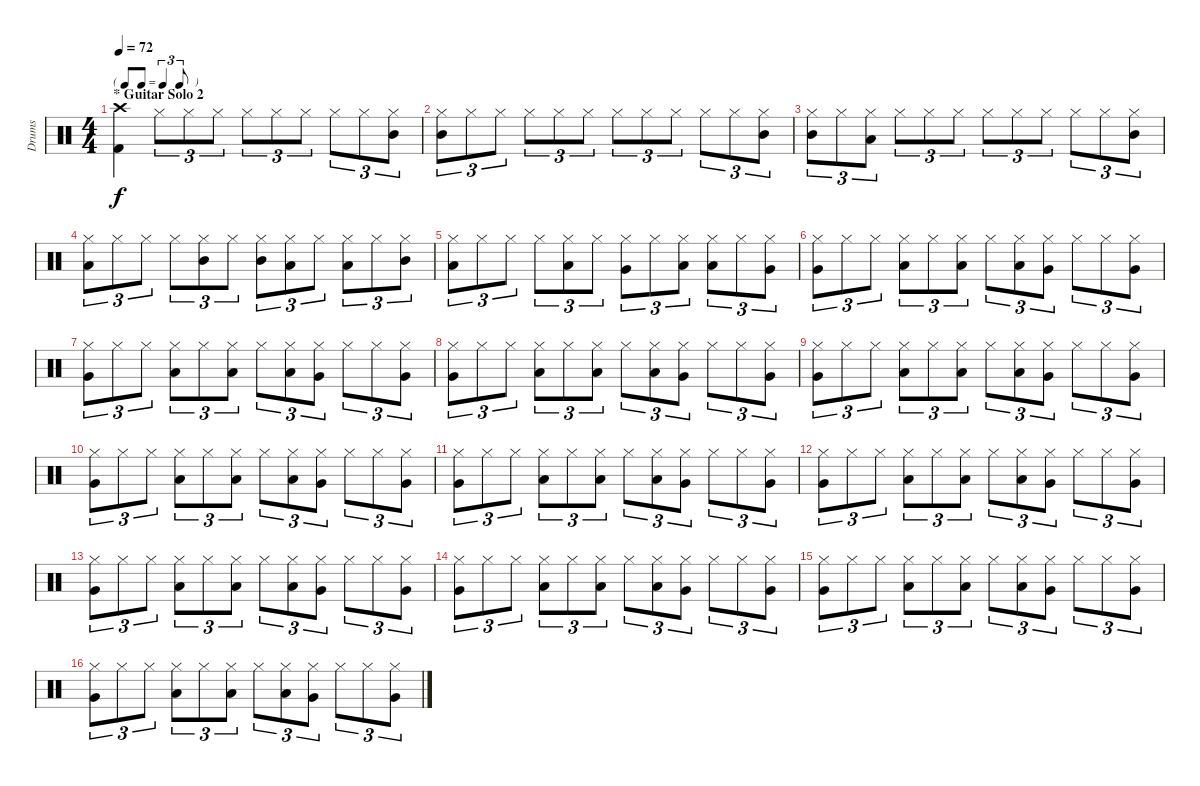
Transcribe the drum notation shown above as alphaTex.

\track ("Drums" "Drums") {instrument percussion}
\staff {score}
\articulation defaults
\ts (4 4)
\tf triplet8th
\section ("" "* Guitar Solo 2")
\tempo 72
\clef neutral
\ks c
("Crash high (hit)" "Kick (hit) 2").4{dy f} "Hi-Hat (closed)".8{tu (3 2)} "Hi-Hat (closed)".8{tu (3 2)} "Hi-Hat (closed)".8{tu (3 2)} "Hi-Hat (closed)".8{tu (3 2)} "Hi-Hat (closed)".8{tu (3 2)} "Hi-Hat (closed)".8{tu (3 2)} "Hi-Hat (closed)".8{tu (3 2)} "Hi-Hat (closed)".8{tu (3 2)} ("Hi-Hat (closed)" "Mid Tom (hit)").8{tu (3 2)} |
("Hi-Hat (closed)" "Mid Tom (hit)").8{tu (3 2)} "Hi-Hat (closed)".8{tu (3 2)} "Hi-Hat (closed)".8{tu (3 2)} "Hi-Hat (closed)".8{tu (3 2)} "Hi-Hat (closed)".8{tu (3 2)} "Hi-Hat (closed)".8{tu (3 2)} "Hi-Hat (closed)".8{tu (3 2)} "Hi-Hat (closed)".8{tu (3 2)} "Hi-Hat (closed)".8{tu (3 2)} "Hi-Hat (closed)".8{tu (3 2)} "Hi-Hat (closed)".8{tu (3 2)} ("Hi-Hat (closed)" "Mid Tom (hit)").8{tu (3 2)} |
("Hi-Hat (closed)" "Mid Tom (hit)").8{tu (3 2)} "Hi-Hat (closed)".8{tu (3 2)} ("Hi-Hat (closed)" "Low Tom (hit)").8{tu (3 2)} "Hi-Hat (closed)".8{tu (3 2)} "Hi-Hat (closed)".8{tu (3 2)} "Hi-Hat (closed)".8{tu (3 2)} "Hi-Hat (closed)".8{tu (3 2)} "Hi-Hat (closed)".8{tu (3 2)} "Hi-Hat (closed)".8{tu (3 2)} "Hi-Hat (closed)".8{tu (3 2)} "Hi-Hat (closed)".8{tu (3 2)} ("Hi-Hat (closed)" "Mid Tom (hit)").8{tu (3 2)} |
("Hi-Hat (closed)" "Low Tom (hit)").8{tu (3 2)} "Hi-Hat (closed)".8{tu (3 2)} "Hi-Hat (closed)".8{tu (3 2)} "Hi-Hat (closed)".8{tu (3 2)} ("Hi-Hat (closed)" "Mid Tom (hit)").8{tu (3 2)} "Hi-Hat (closed)".8{tu (3 2)} ("Hi-Hat (closed)" "Mid Tom (hit)").8{tu (3 2)} ("Hi-Hat (closed)" "Low Tom (hit)").8{tu (3 2)} "Hi-Hat (closed)".8{tu (3 2)} ("Hi-Hat (closed)" "Low Tom (hit)").8{tu (3 2)} "Hi-Hat (closed)".8{tu (3 2)} ("Hi-Hat (closed)" "Mid Tom (hit)").8{tu (3 2)} |
("Hi-Hat (closed)" "Low Tom (hit)").8{tu (3 2)} "Hi-Hat (closed)".8{tu (3 2)} "Hi-Hat (closed)".8{tu (3 2)} "Hi-Hat (closed)".8{tu (3 2)} ("Hi-Hat (closed)" "Low Tom (hit)").8{tu (3 2)} "Hi-Hat (closed)".8{tu (3 2)} ("Hi-Hat (closed)" "Very Low Tom (hit)").8{tu (3 2)} "Hi-Hat (closed)".8{tu (3 2)} ("Hi-Hat (closed)" "Low Tom (hit)").8{tu (3 2)} ("Hi-Hat (closed)" "Low Tom (hit)").8{tu (3 2)} "Hi-Hat (closed)".8{tu (3 2)} ("Hi-Hat (closed)" "Very Low Tom (hit)").8{tu (3 2)} |
("Hi-Hat (closed)" "Very Low Tom (hit)").8{tu (3 2)} "Hi-Hat (closed)".8{tu (3 2)} "Hi-Hat (closed)".8{tu (3 2)} ("Hi-Hat (closed)" "Low Tom (hit)").8{tu (3 2)} "Hi-Hat (closed)".8{tu (3 2)} ("Hi-Hat (closed)" "Low Tom (hit)").8{tu (3 2)} "Hi-Hat (closed)".8{tu (3 2)} ("Hi-Hat (closed)" "Low Tom (hit)").8{tu (3 2)} ("Hi-Hat (closed)" "Very Low Tom (hit)").8{tu (3 2)} "Hi-Hat (closed)".8{tu (3 2)} "Hi-Hat (closed)".8{tu (3 2)} ("Hi-Hat (closed)" "Very Low Tom (hit)").8{tu (3 2)} |
("Hi-Hat (closed)" "Very Low Tom (hit)").8{tu (3 2)} "Hi-Hat (closed)".8{tu (3 2)} "Hi-Hat (closed)".8{tu (3 2)} ("Hi-Hat (closed)" "Low Tom (hit)").8{tu (3 2)} "Hi-Hat (closed)".8{tu (3 2)} ("Hi-Hat (closed)" "Low Tom (hit)").8{tu (3 2)} "Hi-Hat (closed)".8{tu (3 2)} ("Hi-Hat (closed)" "Low Tom (hit)").8{tu (3 2)} ("Hi-Hat (closed)" "Very Low Tom (hit)").8{tu (3 2)} "Hi-Hat (closed)".8{tu (3 2)} "Hi-Hat (closed)".8{tu (3 2)} ("Hi-Hat (closed)" "Very Low Tom (hit)").8{tu (3 2)} |
("Hi-Hat (closed)" "Very Low Tom (hit)").8{tu (3 2)} "Hi-Hat (closed)".8{tu (3 2)} "Hi-Hat (closed)".8{tu (3 2)} ("Hi-Hat (closed)" "Low Tom (hit)").8{tu (3 2)} "Hi-Hat (closed)".8{tu (3 2)} ("Hi-Hat (closed)" "Low Tom (hit)").8{tu (3 2)} "Hi-Hat (closed)".8{tu (3 2)} ("Hi-Hat (closed)" "Low Tom (hit)").8{tu (3 2)} ("Hi-Hat (closed)" "Very Low Tom (hit)").8{tu (3 2)} "Hi-Hat (closed)".8{tu (3 2)} "Hi-Hat (closed)".8{tu (3 2)} ("Hi-Hat (closed)" "Very Low Tom (hit)").8{tu (3 2)} |
("Hi-Hat (closed)" "Very Low Tom (hit)").8{tu (3 2)} "Hi-Hat (closed)".8{tu (3 2)} "Hi-Hat (closed)".8{tu (3 2)} ("Hi-Hat (closed)" "Low Tom (hit)").8{tu (3 2)} "Hi-Hat (closed)".8{tu (3 2)} ("Hi-Hat (closed)" "Low Tom (hit)").8{tu (3 2)} "Hi-Hat (closed)".8{tu (3 2)} ("Hi-Hat (closed)" "Low Tom (hit)").8{tu (3 2)} ("Hi-Hat (closed)" "Very Low Tom (hit)").8{tu (3 2)} "Hi-Hat (closed)".8{tu (3 2)} "Hi-Hat (closed)".8{tu (3 2)} ("Hi-Hat (closed)" "Very Low Tom (hit)").8{tu (3 2)} |
("Hi-Hat (closed)" "Very Low Tom (hit)").8{tu (3 2)} "Hi-Hat (closed)".8{tu (3 2)} "Hi-Hat (closed)".8{tu (3 2)} ("Hi-Hat (closed)" "Low Tom (hit)").8{tu (3 2)} "Hi-Hat (closed)".8{tu (3 2)} ("Hi-Hat (closed)" "Low Tom (hit)").8{tu (3 2)} "Hi-Hat (closed)".8{tu (3 2)} ("Hi-Hat (closed)" "Low Tom (hit)").8{tu (3 2)} ("Hi-Hat (closed)" "Very Low Tom (hit)").8{tu (3 2)} "Hi-Hat (closed)".8{tu (3 2)} "Hi-Hat (closed)".8{tu (3 2)} ("Hi-Hat (closed)" "Very Low Tom (hit)").8{tu (3 2)} |
("Hi-Hat (closed)" "Very Low Tom (hit)").8{tu (3 2)} "Hi-Hat (closed)".8{tu (3 2)} "Hi-Hat (closed)".8{tu (3 2)} ("Hi-Hat (closed)" "Low Tom (hit)").8{tu (3 2)} "Hi-Hat (closed)".8{tu (3 2)} ("Hi-Hat (closed)" "Low Tom (hit)").8{tu (3 2)} "Hi-Hat (closed)".8{tu (3 2)} ("Hi-Hat (closed)" "Low Tom (hit)").8{tu (3 2)} ("Hi-Hat (closed)" "Very Low Tom (hit)").8{tu (3 2)} "Hi-Hat (closed)".8{tu (3 2)} "Hi-Hat (closed)".8{tu (3 2)} ("Hi-Hat (closed)" "Very Low Tom (hit)").8{tu (3 2)} |
("Hi-Hat (closed)" "Very Low Tom (hit)").8{tu (3 2)} "Hi-Hat (closed)".8{tu (3 2)} "Hi-Hat (closed)".8{tu (3 2)} ("Hi-Hat (closed)" "Low Tom (hit)").8{tu (3 2)} "Hi-Hat (closed)".8{tu (3 2)} ("Hi-Hat (closed)" "Low Tom (hit)").8{tu (3 2)} "Hi-Hat (closed)".8{tu (3 2)} ("Hi-Hat (closed)" "Low Tom (hit)").8{tu (3 2)} ("Hi-Hat (closed)" "Very Low Tom (hit)").8{tu (3 2)} "Hi-Hat (closed)".8{tu (3 2)} "Hi-Hat (closed)".8{tu (3 2)} ("Hi-Hat (closed)" "Very Low Tom (hit)").8{tu (3 2)} |
("Hi-Hat (closed)" "Very Low Tom (hit)").8{tu (3 2)} "Hi-Hat (closed)".8{tu (3 2)} "Hi-Hat (closed)".8{tu (3 2)} ("Hi-Hat (closed)" "Low Tom (hit)").8{tu (3 2)} "Hi-Hat (closed)".8{tu (3 2)} ("Hi-Hat (closed)" "Low Tom (hit)").8{tu (3 2)} "Hi-Hat (closed)".8{tu (3 2)} ("Hi-Hat (closed)" "Low Tom (hit)").8{tu (3 2)} ("Hi-Hat (closed)" "Very Low Tom (hit)").8{tu (3 2)} "Hi-Hat (closed)".8{tu (3 2)} "Hi-Hat (closed)".8{tu (3 2)} ("Hi-Hat (closed)" "Very Low Tom (hit)").8{tu (3 2)} |
("Hi-Hat (closed)" "Very Low Tom (hit)").8{tu (3 2)} "Hi-Hat (closed)".8{tu (3 2)} "Hi-Hat (closed)".8{tu (3 2)} ("Hi-Hat (closed)" "Low Tom (hit)").8{tu (3 2)} "Hi-Hat (closed)".8{tu (3 2)} ("Hi-Hat (closed)" "Low Tom (hit)").8{tu (3 2)} "Hi-Hat (closed)".8{tu (3 2)} ("Hi-Hat (closed)" "Low Tom (hit)").8{tu (3 2)} ("Hi-Hat (closed)" "Very Low Tom (hit)").8{tu (3 2)} "Hi-Hat (closed)".8{tu (3 2)} "Hi-Hat (closed)".8{tu (3 2)} ("Hi-Hat (closed)" "Very Low Tom (hit)").8{tu (3 2)} |
("Hi-Hat (closed)" "Very Low Tom (hit)").8{tu (3 2)} "Hi-Hat (closed)".8{tu (3 2)} "Hi-Hat (closed)".8{tu (3 2)} ("Hi-Hat (closed)" "Low Tom (hit)").8{tu (3 2)} "Hi-Hat (closed)".8{tu (3 2)} ("Hi-Hat (closed)" "Low Tom (hit)").8{tu (3 2)} "Hi-Hat (closed)".8{tu (3 2)} ("Hi-Hat (closed)" "Low Tom (hit)").8{tu (3 2)} ("Hi-Hat (closed)" "Very Low Tom (hit)").8{tu (3 2)} "Hi-Hat (closed)".8{tu (3 2)} "Hi-Hat (closed)".8{tu (3 2)} ("Hi-Hat (closed)" "Very Low Tom (hit)").8{tu (3 2)} |
("Hi-Hat (closed)" "Very Low Tom (hit)").8{tu (3 2)} "Hi-Hat (closed)".8{tu (3 2)} "Hi-Hat (closed)".8{tu (3 2)} ("Hi-Hat (closed)" "Low Tom (hit)").8{tu (3 2)} "Hi-Hat (closed)".8{tu (3 2)} ("Hi-Hat (closed)" "Low Tom (hit)").8{tu (3 2)} "Hi-Hat (closed)".8{tu (3 2)} ("Hi-Hat (closed)" "Low Tom (hit)").8{tu (3 2)} ("Hi-Hat (closed)" "Very Low Tom (hit)").8{tu (3 2)} "Hi-Hat (closed)".8{tu (3 2)} "Hi-Hat (closed)".8{tu (3 2)} ("Hi-Hat (closed)" "Very Low Tom (hit)").8{tu (3 2)}
